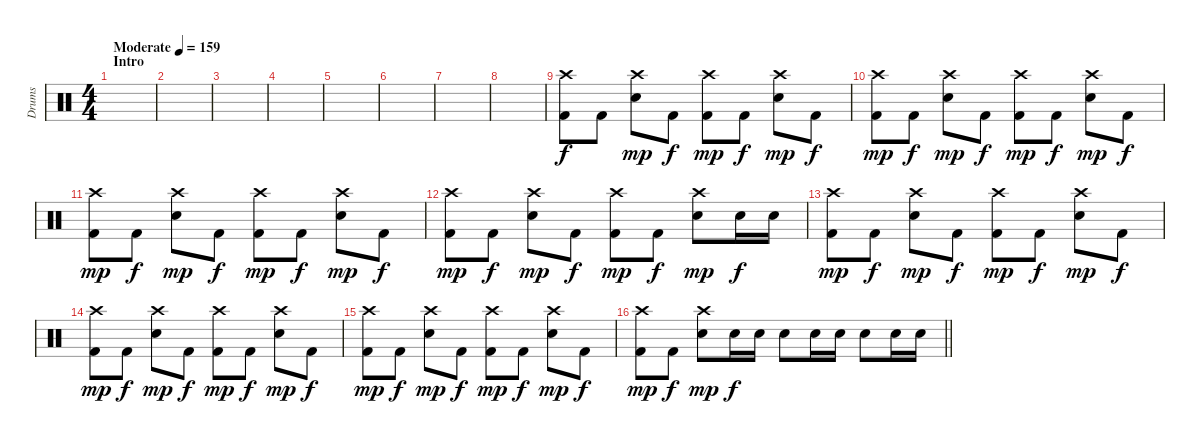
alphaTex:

\track ("Drums" "Drums") {instrument percussion}
\staff {score}
\articulation defaults
\ts (4 4)
\section ("" "Intro")
\tempo (159 "Moderate")
\clef neutral
\ks c
|
|
|
|
|
|
|
|
("Crash high (hit)" "Kick (hit) 2").8 "Kick (hit) 2".8{dy f} ("Crash high (hit)" "Electric Snare (hit)").8{dy mp} "Kick (hit) 2".8{dy f} ("Crash high (hit)" "Kick (hit) 2").8{dy mp} "Kick (hit) 2".8{dy f} ("Crash high (hit)" "Electric Snare (hit)").8{dy mp} "Kick (hit) 2".8{dy f} |
("Crash high (hit)" "Kick (hit) 2").8{dy mp} "Kick (hit) 2".8{dy f} ("Crash high (hit)" "Electric Snare (hit)").8{dy mp} "Kick (hit) 2".8{dy f} ("Crash high (hit)" "Kick (hit) 2").8{dy mp} "Kick (hit) 2".8{dy f} ("Crash high (hit)" "Electric Snare (hit)").8{dy mp} "Kick (hit) 2".8{dy f} |
("Crash high (hit)" "Kick (hit) 2").8{dy mp} "Kick (hit) 2".8{dy f} ("Crash high (hit)" "Electric Snare (hit)").8{dy mp} "Kick (hit) 2".8{dy f} ("Crash high (hit)" "Kick (hit) 2").8{dy mp} "Kick (hit) 2".8{dy f} ("Crash high (hit)" "Electric Snare (hit)").8{dy mp} "Kick (hit) 2".8{dy f} |
("Crash high (hit)" "Kick (hit) 2").8{dy mp} "Kick (hit) 2".8{dy f} ("Crash high (hit)" "Electric Snare (hit)").8{dy mp} "Kick (hit) 2".8{dy f} ("Crash high (hit)" "Kick (hit) 2").8{dy mp} "Kick (hit) 2".8{dy f} ("Crash high (hit)" "Electric Snare (hit)").8{dy mp} "Electric Snare (hit)".16{dy f} "Electric Snare (hit)".16 |
("Crash high (hit)" "Kick (hit) 2").8{dy mp} "Kick (hit) 2".8{dy f} ("Crash high (hit)" "Electric Snare (hit)").8{dy mp} "Kick (hit) 2".8{dy f} ("Crash high (hit)" "Kick (hit) 2").8{dy mp} "Kick (hit) 2".8{dy f} ("Crash high (hit)" "Electric Snare (hit)").8{dy mp} "Kick (hit) 2".8{dy f} |
("Crash high (hit)" "Kick (hit) 2").8{dy mp} "Kick (hit) 2".8{dy f} ("Crash high (hit)" "Electric Snare (hit)").8{dy mp} "Kick (hit) 2".8{dy f} ("Crash high (hit)" "Kick (hit) 2").8{dy mp} "Kick (hit) 2".8{dy f} ("Crash high (hit)" "Electric Snare (hit)").8{dy mp} "Kick (hit) 2".8{dy f} |
("Crash high (hit)" "Kick (hit) 2").8{dy mp} "Kick (hit) 2".8{dy f} ("Crash high (hit)" "Electric Snare (hit)").8{dy mp} "Kick (hit) 2".8{dy f} ("Crash high (hit)" "Kick (hit) 2").8{dy mp} "Kick (hit) 2".8{dy f} ("Crash high (hit)" "Electric Snare (hit)").8{dy mp} "Kick (hit) 2".8{dy f} |
\barLineRight lightlight
("Crash high (hit)" "Kick (hit) 2").8{dy mp} "Kick (hit) 2".8{dy f} ("Crash high (hit)" "Electric Snare (hit)").8{dy mp} "Electric Snare (hit)".16{dy f} "Electric Snare (hit)".16 "Electric Snare (hit)".8 "Electric Snare (hit)".16 "Electric Snare (hit)".16 "Electric Snare (hit)".8 "Electric Snare (hit)".16 "Electric Snare (hit)".16
